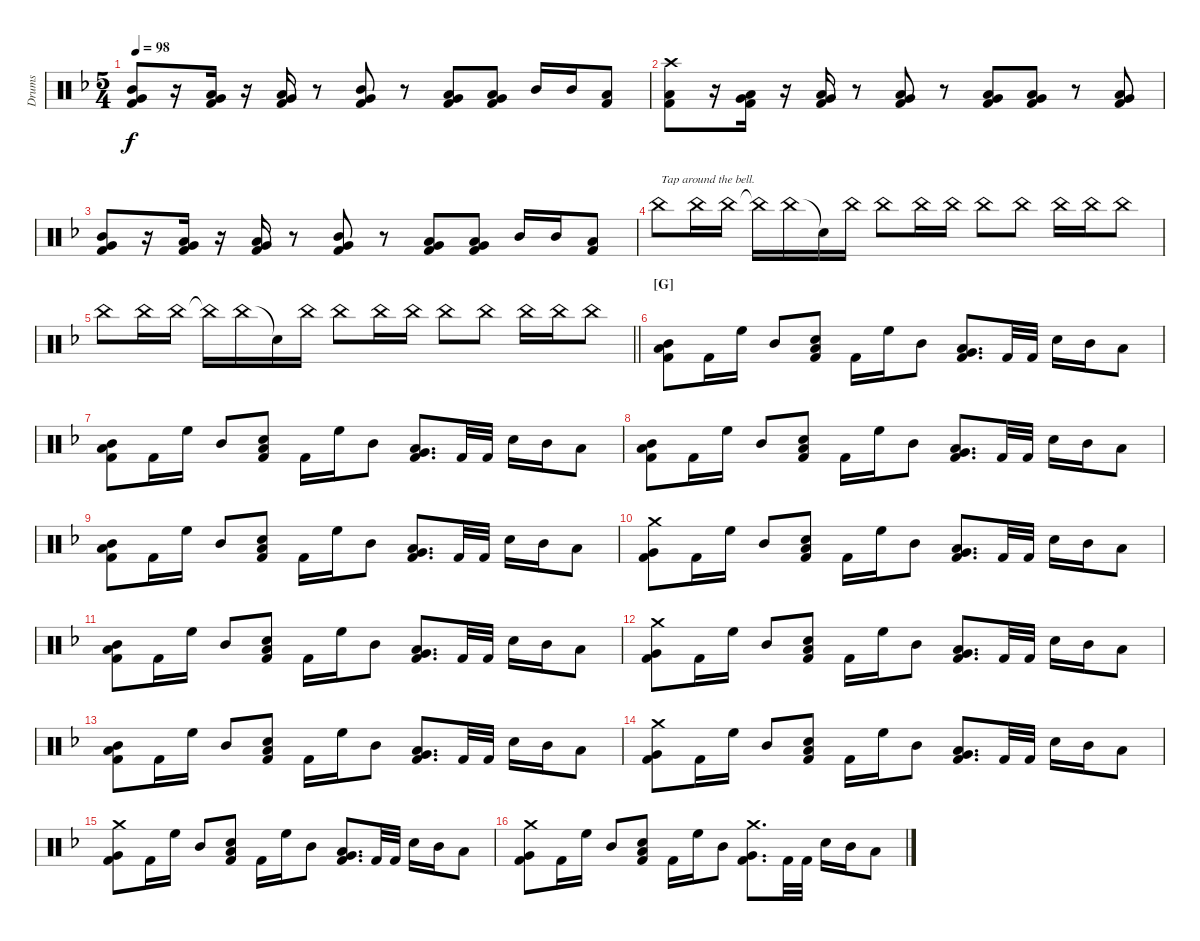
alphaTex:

\track ("Drums" "Drums") {instrument percussion}
\staff {score}
\articulation defaults
\ts (5 4)
\tempo 98
\clef neutral
\ks dminor
("Mid Tom (hit)" "Very Low Tom (hit)" "Kick (hit) 2").8{dy f} r.16 ("Low Tom (hit)" "Very Low Tom (hit)" "Kick (hit) 2").16 r.16 ("Low Tom (hit)" "Very Low Tom (hit)" "Kick (hit) 2").16 r.8 ("Mid Tom (hit)" "Very Low Tom (hit)" "Kick (hit) 2").8 r.8 ("Low Tom (hit)" "Very Low Tom (hit)" "Kick (hit) 2").8 ("Low Tom (hit)" "Very Low Tom (hit)" "Kick (hit) 2").8 "Mid Tom (hit)".16 "Mid Tom (hit)".16 ("Low Tom (hit)" "Kick (hit) 2").8 |
("Crash high (hit)" "Low Tom (hit)" "Kick (hit) 2").8 r.16 ("Low Tom (hit)" "Very Low Tom (hit)" "Kick (hit) 2").16 r.16 ("Low Tom (hit)" "Very Low Tom (hit)" "Kick (hit) 2").16 r.8 ("Low Tom (hit)" "Very Low Tom (hit)" "Kick (hit) 2").8 r.8 ("Low Tom (hit)" "Very Low Tom (hit)" "Kick (hit) 2").8 ("Low Tom (hit)" "Very Low Tom (hit)" "Kick (hit) 2").8 r.8 ("Low Tom (hit)" "Very Low Tom (hit)" "Kick (hit) 2").8 |
("Mid Tom (hit)" "Very Low Tom (hit)" "Kick (hit) 2").8 r.16 ("Low Tom (hit)" "Very Low Tom (hit)" "Kick (hit) 2").16 r.16 ("Low Tom (hit)" "Very Low Tom (hit)" "Kick (hit) 2").16 r.8 ("Mid Tom (hit)" "Very Low Tom (hit)" "Kick (hit) 2").8 r.8 ("Low Tom (hit)" "Very Low Tom (hit)" "Kick (hit) 2").8 ("Low Tom (hit)" "Very Low Tom (hit)" "Kick (hit) 2").8 "Mid Tom (hit)".16 "Mid Tom (hit)".16 ("Low Tom (hit)" "Kick (hit) 2").8 |
"China (hit)".8{txt "Tap around the bell."} "China (hit)".16 "China (hit)".16 "China (hit)"{t}.16 "China (hit)".16 "Snare (hit)"{t}.16 "China (hit)".16 "China (hit)".8 "China (hit)".16 "China (hit)".16 "China (hit)".8 "China (hit)".8 "China (hit)".16 "China (hit)".16 "China (hit)".8 |
\barLineRight lightlight "China (hit)".8 "China (hit)".16 "China (hit)".16 "China (hit)"{t}.16 "China (hit)".16 "Snare (hit)"{t}.16 "China (hit)".16 "China (hit)".8 "China (hit)".16 "China (hit)".16 "China (hit)".8 "China (hit)".8 "China (hit)".16 "China (hit)".16 "China (hit)".8
|
\section ("" "[G]")
("Mid Tom (hit)" "Low Tom (hit)" "Kick (hit) 2").8 "Kick (hit) 2".16 "High Floor Tom (hit)".16 "Mid Tom (hit)".8 ("Electric Snare (hit)" "Low Tom (hit)" "Kick (hit) 2").8 "Kick (hit) 2".16 "High Floor Tom (hit)".16 "Mid Tom (hit)".8 ("Low Tom (hit)" "Very Low Tom (hit)" "Kick (hit) 2").8{d} "Kick (hit) 2".32 "Kick (hit) 2".32 "Electric Snare (hit)".16 "Mid Tom (hit)".16 "Low Tom (hit)".8 |
("Mid Tom (hit)" "Low Tom (hit)" "Kick (hit) 2").8 "Kick (hit) 2".16 "High Floor Tom (hit)".16 "Mid Tom (hit)".8 ("Electric Snare (hit)" "Low Tom (hit)" "Kick (hit) 2").8 "Kick (hit) 2".16 "High Floor Tom (hit)".16 "Mid Tom (hit)".8 ("Low Tom (hit)" "Very Low Tom (hit)" "Kick (hit) 2").8{d} "Kick (hit) 2".32 "Kick (hit) 2".32 "Electric Snare (hit)".16 "Mid Tom (hit)".16 "Low Tom (hit)".8 |
("Mid Tom (hit)" "Low Tom (hit)" "Kick (hit) 2").8 "Kick (hit) 2".16 "High Floor Tom (hit)".16 "Mid Tom (hit)".8 ("Electric Snare (hit)" "Low Tom (hit)" "Kick (hit) 2").8 "Kick (hit) 2".16 "High Floor Tom (hit)".16 "Mid Tom (hit)".8 ("Low Tom (hit)" "Very Low Tom (hit)" "Kick (hit) 2").8{d} "Kick (hit) 2".32 "Kick (hit) 2".32 "Electric Snare (hit)".16 "Mid Tom (hit)".16 "Low Tom (hit)".8 |
("Mid Tom (hit)" "Low Tom (hit)" "Kick (hit) 2").8 "Kick (hit) 2".16 "High Floor Tom (hit)".16 "Mid Tom (hit)".8 ("Electric Snare (hit)" "Low Tom (hit)" "Kick (hit) 2").8 "Kick (hit) 2".16 "High Floor Tom (hit)".16 "Mid Tom (hit)".8 ("Low Tom (hit)" "Very Low Tom (hit)" "Kick (hit) 2").8{d} "Kick (hit) 2".32 "Kick (hit) 2".32 "Electric Snare (hit)".16 "Mid Tom (hit)".16 "Low Tom (hit)".8 |
("Crash medium (hit)" "Very Low Tom (hit)" "Kick (hit) 2").8 "Kick (hit) 2".16 "High Floor Tom (hit)".16 "Mid Tom (hit)".8 ("Electric Snare (hit)" "Low Tom (hit)" "Kick (hit) 2").8 "Kick (hit) 2".16 "High Floor Tom (hit)".16 "Mid Tom (hit)".8 ("Low Tom (hit)" "Very Low Tom (hit)" "Kick (hit) 2").8{d} "Kick (hit) 2".32 "Kick (hit) 2".32 "Electric Snare (hit)".16 "Mid Tom (hit)".16 "Low Tom (hit)".8 |
("Mid Tom (hit)" "Low Tom (hit)" "Kick (hit) 2").8 "Kick (hit) 2".16 "High Floor Tom (hit)".16 "Mid Tom (hit)".8 ("Electric Snare (hit)" "Low Tom (hit)" "Kick (hit) 2").8 "Kick (hit) 2".16 "High Floor Tom (hit)".16 "Mid Tom (hit)".8 ("Low Tom (hit)" "Very Low Tom (hit)" "Kick (hit) 2").8{d} "Kick (hit) 2".32 "Kick (hit) 2".32 "Electric Snare (hit)".16 "Mid Tom (hit)".16 "Low Tom (hit)".8 |
("Crash medium (hit)" "Very Low Tom (hit)" "Kick (hit) 2").8 "Kick (hit) 2".16 "High Floor Tom (hit)".16 "Mid Tom (hit)".8 ("Electric Snare (hit)" "Low Tom (hit)" "Kick (hit) 2").8 "Kick (hit) 2".16 "High Floor Tom (hit)".16 "Mid Tom (hit)".8 ("Low Tom (hit)" "Very Low Tom (hit)" "Kick (hit) 2").8{d} "Kick (hit) 2".32 "Kick (hit) 2".32 "Electric Snare (hit)".16 "Mid Tom (hit)".16 "Low Tom (hit)".8 |
("Mid Tom (hit)" "Low Tom (hit)" "Kick (hit) 2").8 "Kick (hit) 2".16 "High Floor Tom (hit)".16 "Mid Tom (hit)".8 ("Electric Snare (hit)" "Low Tom (hit)" "Kick (hit) 2").8 "Kick (hit) 2".16 "High Floor Tom (hit)".16 "Mid Tom (hit)".8 ("Low Tom (hit)" "Very Low Tom (hit)" "Kick (hit) 2").8{d} "Kick (hit) 2".32 "Kick (hit) 2".32 "Electric Snare (hit)".16 "Mid Tom (hit)".16 "Low Tom (hit)".8 |
("Crash medium (hit)" "Very Low Tom (hit)" "Kick (hit) 2").8 "Kick (hit) 2".16 "High Floor Tom (hit)".16 "Mid Tom (hit)".8 ("Electric Snare (hit)" "Low Tom (hit)" "Kick (hit) 2").8 "Kick (hit) 2".16 "High Floor Tom (hit)".16 "Mid Tom (hit)".8 ("Low Tom (hit)" "Very Low Tom (hit)" "Kick (hit) 2").8{d} "Kick (hit) 2".32 "Kick (hit) 2".32 "Electric Snare (hit)".16 "Mid Tom (hit)".16 "Low Tom (hit)".8 |
("Crash medium (hit)" "Very Low Tom (hit)" "Kick (hit) 2").8 "Kick (hit) 2".16 "High Floor Tom (hit)".16 "Mid Tom (hit)".8 ("Electric Snare (hit)" "Low Tom (hit)" "Kick (hit) 2").8 "Kick (hit) 2".16 "High Floor Tom (hit)".16 "Mid Tom (hit)".8 ("Low Tom (hit)" "Very Low Tom (hit)" "Kick (hit) 2").8{d} "Kick (hit) 2".32 "Kick (hit) 2".32 "Electric Snare (hit)".16 "Mid Tom (hit)".16 "Low Tom (hit)".8 |
("Crash medium (hit)" "Very Low Tom (hit)" "Kick (hit) 2").8 "Kick (hit) 2".16 "High Floor Tom (hit)".16 "Mid Tom (hit)".8 ("Electric Snare (hit)" "Low Tom (hit)" "Kick (hit) 2").8 "Kick (hit) 2".16 "High Floor Tom (hit)".16 "Mid Tom (hit)".8 ("Crash medium (hit)" "Very Low Tom (hit)" "Kick (hit) 2").8{d} "Kick (hit) 2".32 "Kick (hit) 2".32 "Electric Snare (hit)".16 "Mid Tom (hit)".16 "Low Tom (hit)".8
